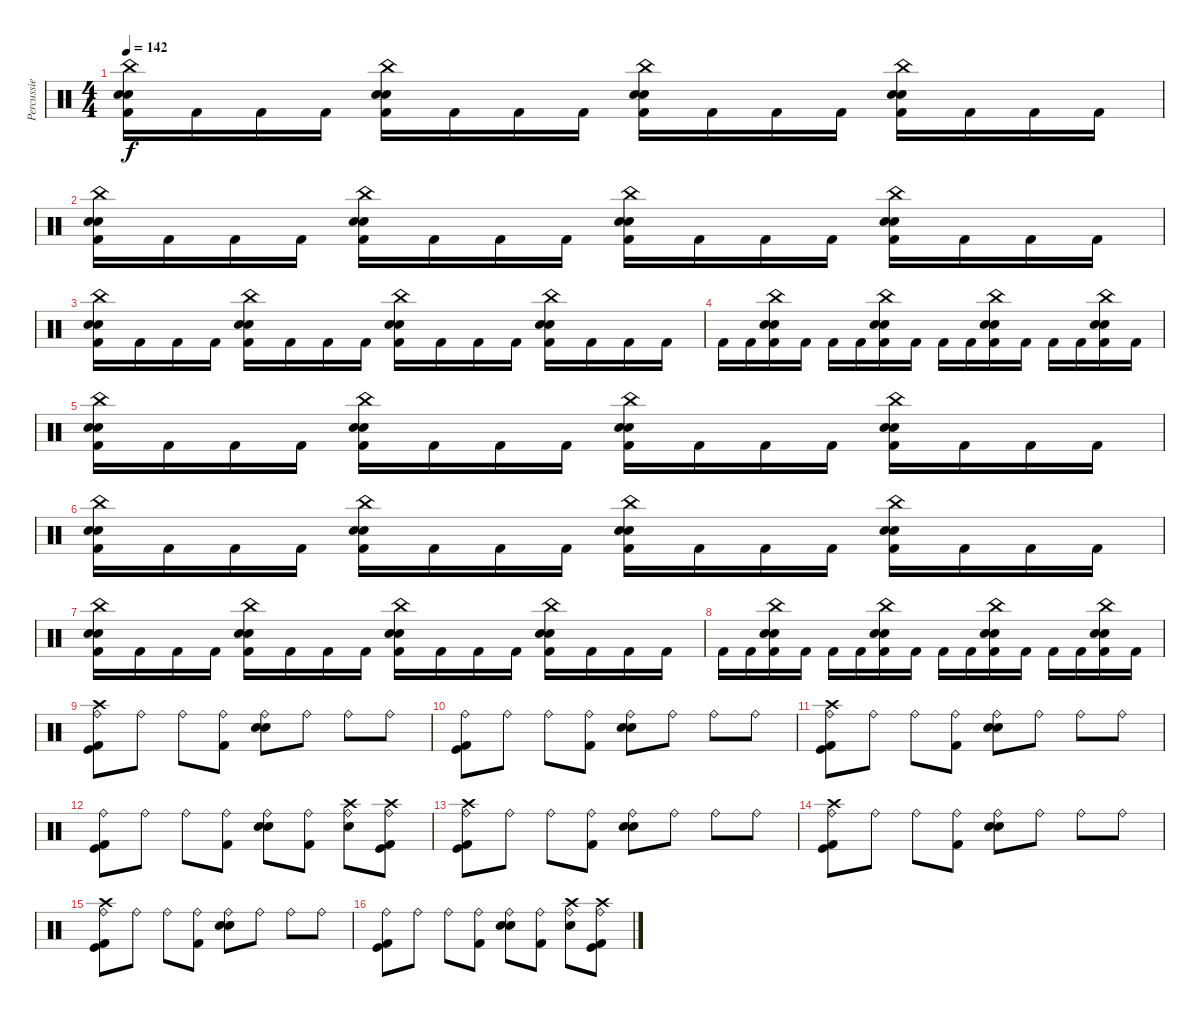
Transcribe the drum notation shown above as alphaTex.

\track ("Percussie" "Percussie") {instrument percussion}
\staff {score}
\articulation defaults
\ts (4 4)
\tempo 142
\clef neutral
\ks c
("Kick (hit) 2" "Electric Snare (hit)" "Snare (hit) 2" "China (hit)").16{dy f} "Kick (hit) 2".16 "Kick (hit) 2".16 "Kick (hit) 2".16 ("Kick (hit) 2" "Electric Snare (hit)" "Snare (hit) 2" "China (hit)").16 "Kick (hit) 2".16 "Kick (hit) 2".16 "Kick (hit) 2".16 ("Kick (hit) 2" "Electric Snare (hit)" "Snare (hit) 2" "China (hit)").16 "Kick (hit) 2".16 "Kick (hit) 2".16 "Kick (hit) 2".16 ("Kick (hit) 2" "Electric Snare (hit)" "Snare (hit) 2" "China (hit)").16 "Kick (hit) 2".16 "Kick (hit) 2".16 "Kick (hit) 2".16 |
("Kick (hit) 2" "Electric Snare (hit)" "Snare (hit) 2" "China (hit)").16 "Kick (hit) 2".16 "Kick (hit) 2".16 "Kick (hit) 2".16 ("Kick (hit) 2" "Electric Snare (hit)" "Snare (hit) 2" "China (hit)").16 "Kick (hit) 2".16 "Kick (hit) 2".16 "Kick (hit) 2".16 ("Kick (hit) 2" "Electric Snare (hit)" "Snare (hit) 2" "China (hit)").16 "Kick (hit) 2".16 "Kick (hit) 2".16 "Kick (hit) 2".16 ("Kick (hit) 2" "Electric Snare (hit)" "Snare (hit) 2" "China (hit)").16 "Kick (hit) 2".16 "Kick (hit) 2".16 "Kick (hit) 2".16 |
("Kick (hit) 2" "Electric Snare (hit)" "Snare (hit) 2" "China (hit)").16 "Kick (hit) 2".16 "Kick (hit) 2".16 "Kick (hit) 2".16 ("Kick (hit) 2" "Electric Snare (hit)" "Snare (hit) 2" "China (hit)").16 "Kick (hit) 2".16 "Kick (hit) 2".16 "Kick (hit) 2".16 ("Kick (hit) 2" "Electric Snare (hit)" "Snare (hit) 2" "China (hit)").16 "Kick (hit) 2".16 "Kick (hit) 2".16 "Kick (hit) 2".16 ("Kick (hit) 2" "Electric Snare (hit)" "Snare (hit) 2" "China (hit)").16 "Kick (hit) 2".16 "Kick (hit) 2".16 "Kick (hit) 2".16 |
"Kick (hit) 2".16 "Kick (hit) 2".16 ("Kick (hit) 2" "Snare (hit) 2" "Electric Snare (hit)" "China (hit)").16 "Kick (hit) 2".16 "Kick (hit) 2".16 "Kick (hit) 2".16 ("Kick (hit) 2" "Snare (hit) 2" "Electric Snare (hit)" "China (hit)").16 "Kick (hit) 2".16 "Kick (hit) 2".16 "Kick (hit) 2".16 ("Kick (hit) 2" "Snare (hit) 2" "Electric Snare (hit)" "China (hit)").16 "Kick (hit) 2".16 "Kick (hit) 2".16 "Kick (hit) 2".16 ("Kick (hit) 2" "Snare (hit) 2" "Electric Snare (hit)" "China (hit)").16 "Kick (hit) 2".16 |
("Kick (hit) 2" "Electric Snare (hit)" "Snare (hit) 2" "China (hit)").16 "Kick (hit) 2".16 "Kick (hit) 2".16 "Kick (hit) 2".16 ("Kick (hit) 2" "Electric Snare (hit)" "Snare (hit) 2" "China (hit)").16 "Kick (hit) 2".16 "Kick (hit) 2".16 "Kick (hit) 2".16 ("Kick (hit) 2" "Electric Snare (hit)" "Snare (hit) 2" "China (hit)").16 "Kick (hit) 2".16 "Kick (hit) 2".16 "Kick (hit) 2".16 ("Kick (hit) 2" "Electric Snare (hit)" "Snare (hit) 2" "China (hit)").16 "Kick (hit) 2".16 "Kick (hit) 2".16 "Kick (hit) 2".16 |
("Kick (hit) 2" "Electric Snare (hit)" "Snare (hit) 2" "China (hit)").16 "Kick (hit) 2".16 "Kick (hit) 2".16 "Kick (hit) 2".16 ("Kick (hit) 2" "Electric Snare (hit)" "Snare (hit) 2" "China (hit)").16 "Kick (hit) 2".16 "Kick (hit) 2".16 "Kick (hit) 2".16 ("Kick (hit) 2" "Electric Snare (hit)" "Snare (hit) 2" "China (hit)").16 "Kick (hit) 2".16 "Kick (hit) 2".16 "Kick (hit) 2".16 ("Kick (hit) 2" "Electric Snare (hit)" "Snare (hit) 2" "China (hit)").16 "Kick (hit) 2".16 "Kick (hit) 2".16 "Kick (hit) 2".16 |
("Kick (hit) 2" "Electric Snare (hit)" "Snare (hit) 2" "China (hit)").16 "Kick (hit) 2".16 "Kick (hit) 2".16 "Kick (hit) 2".16 ("Kick (hit) 2" "Electric Snare (hit)" "Snare (hit) 2" "China (hit)").16 "Kick (hit) 2".16 "Kick (hit) 2".16 "Kick (hit) 2".16 ("Kick (hit) 2" "Electric Snare (hit)" "Snare (hit) 2" "China (hit)").16 "Kick (hit) 2".16 "Kick (hit) 2".16 "Kick (hit) 2".16 ("Kick (hit) 2" "Electric Snare (hit)" "Snare (hit) 2" "China (hit)").16 "Kick (hit) 2".16 "Kick (hit) 2".16 "Kick (hit) 2".16 |
"Kick (hit) 2".16 "Kick (hit) 2".16 ("Kick (hit) 2" "Snare (hit) 2" "Electric Snare (hit)" "China (hit)").16 "Kick (hit) 2".16 "Kick (hit) 2".16 "Kick (hit) 2".16 ("Kick (hit) 2" "Snare (hit) 2" "Electric Snare (hit)" "China (hit)").16 "Kick (hit) 2".16 "Kick (hit) 2".16 "Kick (hit) 2".16 ("Kick (hit) 2" "Snare (hit) 2" "Electric Snare (hit)" "China (hit)").16 "Kick (hit) 2".16 "Kick (hit) 2".16 "Kick (hit) 2".16 ("Kick (hit) 2" "Snare (hit) 2" "Electric Snare (hit)" "China (hit)").16 "Kick (hit) 2".16 |
("Kick (hit) 2" "Ride (bell)" "Kick (hit)" "Crash high (hit)").8 "Ride (bell)".8 "Ride (bell)".8 ("Kick (hit) 2" "Ride (bell)").8 ("Electric Snare (hit)" "Ride (bell)" "Snare (hit) 2").8 "Ride (bell)".8 "Ride (bell)".8 "Ride (bell)".8 |
("Kick (hit) 2" "Ride (bell)" "Kick (hit)").8 "Ride (bell)".8 "Ride (bell)".8 ("Kick (hit) 2" "Ride (bell)").8 ("Electric Snare (hit)" "Ride (bell)" "Snare (hit) 2").8 "Ride (bell)".8 "Ride (bell)".8 "Ride (bell)".8 |
("Kick (hit) 2" "Ride (bell)" "Kick (hit)" "Crash high (hit)").8 "Ride (bell)".8 "Ride (bell)".8 ("Kick (hit) 2" "Ride (bell)").8 ("Electric Snare (hit)" "Ride (bell)" "Snare (hit) 2").8 "Ride (bell)".8 "Ride (bell)".8 "Ride (bell)".8 |
("Kick (hit) 2" "Ride (bell)" "Kick (hit)").8 "Ride (bell)".8 "Ride (bell)".8 ("Kick (hit) 2" "Ride (bell)").8 ("Electric Snare (hit)" "Ride (bell)" "Snare (hit) 2").8 ("Kick (hit) 2" "Ride (bell)").8 ("Ride (bell)" "Electric Snare (hit)" "Crash high (hit)").8 ("Kick (hit)" "Ride (bell)" "Kick (hit) 2" "Crash high (hit)").8 |
("Kick (hit) 2" "Ride (bell)" "Kick (hit)" "Crash high (hit)").8 "Ride (bell)".8 "Ride (bell)".8 ("Kick (hit) 2" "Ride (bell)").8 ("Electric Snare (hit)" "Ride (bell)" "Snare (hit) 2").8 "Ride (bell)".8 "Ride (bell)".8 "Ride (bell)".8 |
("Kick (hit) 2" "Ride (bell)" "Kick (hit)" "Crash high (hit)").8 "Ride (bell)".8 "Ride (bell)".8 ("Kick (hit) 2" "Ride (bell)").8 ("Electric Snare (hit)" "Ride (bell)" "Snare (hit) 2").8 "Ride (bell)".8 "Ride (bell)".8 "Ride (bell)".8 |
("Kick (hit) 2" "Ride (bell)" "Kick (hit)" "Crash high (hit)").8 "Ride (bell)".8 "Ride (bell)".8 ("Kick (hit) 2" "Ride (bell)").8 ("Electric Snare (hit)" "Ride (bell)" "Snare (hit) 2").8 "Ride (bell)".8 "Ride (bell)".8 "Ride (bell)".8 |
("Kick (hit) 2" "Ride (bell)" "Kick (hit)").8 "Ride (bell)".8 "Ride (bell)".8 ("Kick (hit) 2" "Ride (bell)").8 ("Electric Snare (hit)" "Ride (bell)" "Snare (hit) 2").8 ("Kick (hit) 2" "Ride (bell)").8 ("Ride (bell)" "Electric Snare (hit)" "Crash high (hit)").8 ("Kick (hit)" "Ride (bell)" "Kick (hit) 2" "Crash high (hit)").8
